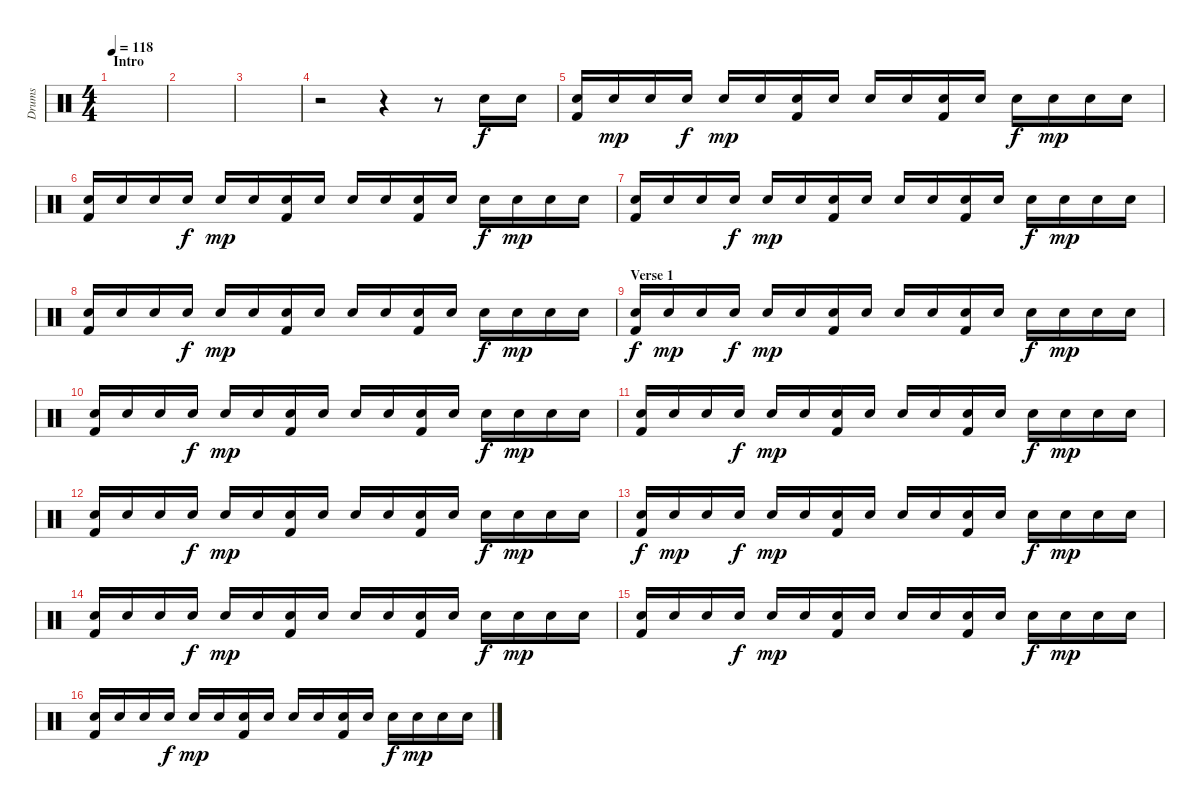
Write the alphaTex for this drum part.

\track ("Drums" "Drums") {instrument percussion}
\staff {score}
\articulation defaults
\ts (4 4)
\section ("" "Intro")
\tempo 118
\clef neutral
\ks c
|
|
|
r.2 r.4 r.8 "Snare (hit) 2".16 "Snare (hit) 2".16 |
("Kick (hit) 2" "Snare (hit) 2").16{dy f} "Snare (hit) 2".16{dy mp} "Snare (hit) 2".16 "Electric Snare (hit)".16{dy f} "Snare (hit) 2".16{dy mp} "Snare (hit) 2".16 ("Kick (hit) 2" "Snare (hit) 2").16 "Snare (hit) 2".16 "Snare (hit) 2".16 "Snare (hit) 2".16 ("Kick (hit) 2" "Snare (hit) 2").16 "Snare (hit) 2".16 "Electric Snare (hit)".16{dy f} "Snare (hit) 2".16{dy mp} "Snare (hit) 2".16 "Snare (hit) 2".16 |
("Kick (hit) 2" "Snare (hit) 2").16 "Snare (hit) 2".16 "Snare (hit) 2".16 "Electric Snare (hit)".16{dy f} "Snare (hit) 2".16{dy mp} "Snare (hit) 2".16 ("Kick (hit) 2" "Snare (hit) 2").16 "Snare (hit) 2".16 "Snare (hit) 2".16 "Snare (hit) 2".16 ("Kick (hit) 2" "Snare (hit) 2").16 "Snare (hit) 2".16 "Electric Snare (hit)".16{dy f} "Snare (hit) 2".16{dy mp} "Snare (hit) 2".16 "Snare (hit) 2".16 |
("Kick (hit) 2" "Snare (hit) 2").16 "Snare (hit) 2".16 "Snare (hit) 2".16 "Electric Snare (hit)".16{dy f} "Snare (hit) 2".16{dy mp} "Snare (hit) 2".16 ("Kick (hit) 2" "Snare (hit) 2").16 "Snare (hit) 2".16 "Snare (hit) 2".16 "Snare (hit) 2".16 ("Kick (hit) 2" "Snare (hit) 2").16 "Snare (hit) 2".16 "Electric Snare (hit)".16{dy f} "Snare (hit) 2".16{dy mp} "Snare (hit) 2".16 "Snare (hit) 2".16 |
("Kick (hit) 2" "Snare (hit) 2").16 "Snare (hit) 2".16 "Snare (hit) 2".16 "Electric Snare (hit)".16{dy f} "Snare (hit) 2".16{dy mp} "Snare (hit) 2".16 ("Kick (hit) 2" "Snare (hit) 2").16 "Snare (hit) 2".16 "Snare (hit) 2".16 "Snare (hit) 2".16 ("Kick (hit) 2" "Snare (hit) 2").16 "Snare (hit) 2".16 "Electric Snare (hit)".16{dy f} "Snare (hit) 2".16{dy mp} "Snare (hit) 2".16 "Snare (hit) 2".16 |
\section ("" "Verse 1")
("Kick (hit) 2" "Snare (hit) 2").16{dy f} "Snare (hit) 2".16{dy mp} "Snare (hit) 2".16 "Electric Snare (hit)".16{dy f} "Snare (hit) 2".16{dy mp} "Snare (hit) 2".16 ("Kick (hit) 2" "Snare (hit) 2").16 "Snare (hit) 2".16 "Snare (hit) 2".16 "Snare (hit) 2".16 ("Kick (hit) 2" "Snare (hit) 2").16 "Snare (hit) 2".16 "Electric Snare (hit)".16{dy f} "Snare (hit) 2".16{dy mp} "Snare (hit) 2".16 "Snare (hit) 2".16 |
("Kick (hit) 2" "Snare (hit) 2").16 "Snare (hit) 2".16 "Snare (hit) 2".16 "Electric Snare (hit)".16{dy f} "Snare (hit) 2".16{dy mp} "Snare (hit) 2".16 ("Kick (hit) 2" "Snare (hit) 2").16 "Snare (hit) 2".16 "Snare (hit) 2".16 "Snare (hit) 2".16 ("Kick (hit) 2" "Snare (hit) 2").16 "Snare (hit) 2".16 "Electric Snare (hit)".16{dy f} "Snare (hit) 2".16{dy mp} "Snare (hit) 2".16 "Snare (hit) 2".16 |
("Kick (hit) 2" "Snare (hit) 2").16 "Snare (hit) 2".16 "Snare (hit) 2".16 "Electric Snare (hit)".16{dy f} "Snare (hit) 2".16{dy mp} "Snare (hit) 2".16 ("Kick (hit) 2" "Snare (hit) 2").16 "Snare (hit) 2".16 "Snare (hit) 2".16 "Snare (hit) 2".16 ("Kick (hit) 2" "Snare (hit) 2").16 "Snare (hit) 2".16 "Electric Snare (hit)".16{dy f} "Snare (hit) 2".16{dy mp} "Snare (hit) 2".16 "Snare (hit) 2".16 |
("Kick (hit) 2" "Snare (hit) 2").16 "Snare (hit) 2".16 "Snare (hit) 2".16 "Electric Snare (hit)".16{dy f} "Snare (hit) 2".16{dy mp} "Snare (hit) 2".16 ("Kick (hit) 2" "Snare (hit) 2").16 "Snare (hit) 2".16 "Snare (hit) 2".16 "Snare (hit) 2".16 ("Kick (hit) 2" "Snare (hit) 2").16 "Snare (hit) 2".16 "Electric Snare (hit)".16{dy f} "Snare (hit) 2".16{dy mp} "Snare (hit) 2".16 "Snare (hit) 2".16 |
("Kick (hit) 2" "Snare (hit) 2").16{dy f} "Snare (hit) 2".16{dy mp} "Snare (hit) 2".16 "Electric Snare (hit)".16{dy f} "Snare (hit) 2".16{dy mp} "Snare (hit) 2".16 ("Kick (hit) 2" "Snare (hit) 2").16 "Snare (hit) 2".16 "Snare (hit) 2".16 "Snare (hit) 2".16 ("Kick (hit) 2" "Snare (hit) 2").16 "Snare (hit) 2".16 "Electric Snare (hit)".16{dy f} "Snare (hit) 2".16{dy mp} "Snare (hit) 2".16 "Snare (hit) 2".16 |
("Kick (hit) 2" "Snare (hit) 2").16 "Snare (hit) 2".16 "Snare (hit) 2".16 "Electric Snare (hit)".16{dy f} "Snare (hit) 2".16{dy mp} "Snare (hit) 2".16 ("Kick (hit) 2" "Snare (hit) 2").16 "Snare (hit) 2".16 "Snare (hit) 2".16 "Snare (hit) 2".16 ("Kick (hit) 2" "Snare (hit) 2").16 "Snare (hit) 2".16 "Electric Snare (hit)".16{dy f} "Snare (hit) 2".16{dy mp} "Snare (hit) 2".16 "Snare (hit) 2".16 |
("Kick (hit) 2" "Snare (hit) 2").16 "Snare (hit) 2".16 "Snare (hit) 2".16 "Electric Snare (hit)".16{dy f} "Snare (hit) 2".16{dy mp} "Snare (hit) 2".16 ("Kick (hit) 2" "Snare (hit) 2").16 "Snare (hit) 2".16 "Snare (hit) 2".16 "Snare (hit) 2".16 ("Kick (hit) 2" "Snare (hit) 2").16 "Snare (hit) 2".16 "Electric Snare (hit)".16{dy f} "Snare (hit) 2".16{dy mp} "Snare (hit) 2".16 "Snare (hit) 2".16 |
("Kick (hit) 2" "Snare (hit) 2").16 "Snare (hit) 2".16 "Snare (hit) 2".16 "Electric Snare (hit)".16{dy f} "Snare (hit) 2".16{dy mp} "Snare (hit) 2".16 ("Kick (hit) 2" "Snare (hit) 2").16 "Snare (hit) 2".16 "Snare (hit) 2".16 "Snare (hit) 2".16 ("Kick (hit) 2" "Snare (hit) 2").16 "Snare (hit) 2".16 "Electric Snare (hit)".16{dy f} "Snare (hit) 2".16{dy mp} "Snare (hit) 2".16 "Snare (hit) 2".16
